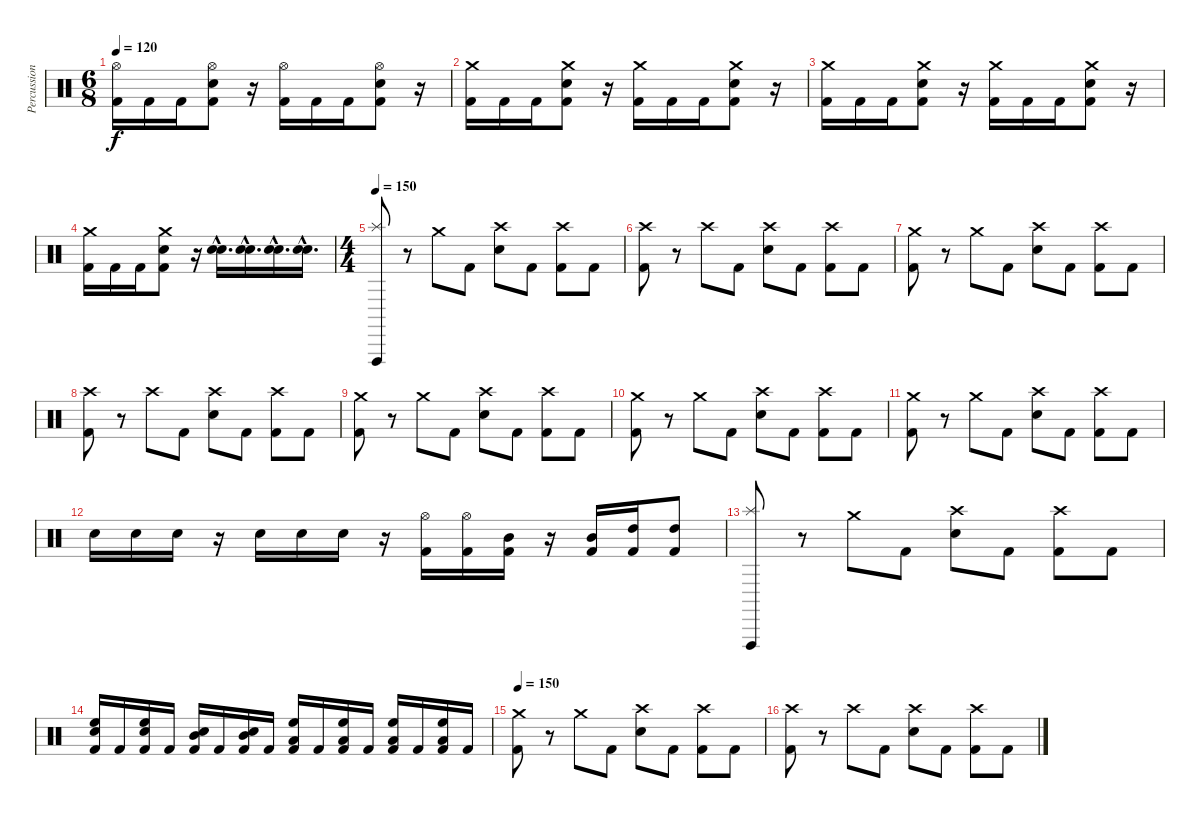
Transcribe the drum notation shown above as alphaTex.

\track ("Percussion" "Percussion") {instrument percussion}
\staff {score}
\articulation defaults
\ts (6 8)
\tempo 120
\clef neutral
\ks c
("Hi-Hat (open)" "Kick (hit) 2").16{dy f} "Kick (hit) 2".16 "Kick (hit) 2".16 ("Hi-Hat (open)" "Snare (hit) 2" "Kick (hit) 2").8 r.16 ("Hi-Hat (open)" "Kick (hit) 2").16 "Kick (hit) 2".16 "Kick (hit) 2".16 ("Hi-Hat (open)" "Snare (hit) 2" "Kick (hit) 2").8 r.16 |
("Crash medium (hit)" "Kick (hit) 2").16 "Kick (hit) 2".16 "Kick (hit) 2".16 ("Crash medium (hit)" "Snare (hit) 2" "Kick (hit) 2").8 r.16 ("Crash medium (hit)" "Kick (hit) 2").16 "Kick (hit) 2".16 "Kick (hit) 2".16 ("Crash medium (hit)" "Snare (hit) 2" "Kick (hit) 2").8 r.16 |
("Crash medium (hit)" "Kick (hit) 2").16 "Kick (hit) 2".16 "Kick (hit) 2".16 ("Crash medium (hit)" "Snare (hit) 2" "Kick (hit) 2").8 r.16 ("Crash medium (hit)" "Kick (hit) 2").16 "Kick (hit) 2".16 "Kick (hit) 2".16 ("Crash medium (hit)" "Snare (hit) 2" "Kick (hit) 2").8 r.16 |
("Crash medium (hit)" "Kick (hit) 2").16 "Kick (hit) 2".16 "Kick (hit) 2".16 ("Crash medium (hit)" "Snare (hit) 2" "Kick (hit) 2").8 r.16 ("Snare (hit) 2"{hac} "Snare (hit) 2"{hac}).16{d} ("Snare (hit) 2"{hac} "Snare (hit) 2"{hac}).16{d} ("Snare (hit) 2"{hac} "Snare (hit) 2"{hac}).16{d} ("Snare (hit) 2"{hac} "Snare (hit) 2"{hac}).16{d} |
\ts (4 4)
\tempo 150
("Splash (hit)" "Vibraslap (hit)").8 r.8 "Crash medium (hit)".8 "Kick (hit) 2".8 ("Crash high (hit)" "Snare (hit) 2").8 "Kick (hit) 2".8 ("Crash high (hit)" "Kick (hit) 2").8 "Kick (hit) 2".8 |
("Crash high (hit)" "Kick (hit) 2").8 r.8 "Crash high (hit)".8 "Kick (hit) 2".8 ("Crash high (hit)" "Snare (hit) 2").8 "Kick (hit) 2".8 ("Crash high (hit)" "Kick (hit) 2").8 "Kick (hit) 2".8 |
("Crash medium (hit)" "Kick (hit) 2").8 r.8 "Crash medium (hit)".8 "Kick (hit) 2".8 ("Crash high (hit)" "Snare (hit) 2").8 "Kick (hit) 2".8 ("Crash high (hit)" "Kick (hit) 2").8 "Kick (hit) 2".8 |
("Crash high (hit)" "Kick (hit) 2").8 r.8 "Crash high (hit)".8 "Kick (hit) 2".8 ("Crash high (hit)" "Snare (hit) 2").8 "Kick (hit) 2".8 ("Crash high (hit)" "Kick (hit) 2").8 "Kick (hit) 2".8 |
("Crash medium (hit)" "Kick (hit) 2").8 r.8 "Crash medium (hit)".8 "Kick (hit) 2".8 ("Crash high (hit)" "Snare (hit) 2").8 "Kick (hit) 2".8 ("Crash high (hit)" "Kick (hit) 2").8 "Kick (hit) 2".8 |
("Crash medium (hit)" "Kick (hit) 2").8 r.8 "Crash medium (hit)".8 "Kick (hit) 2".8 ("Crash high (hit)" "Snare (hit) 2").8 "Kick (hit) 2".8 ("Crash high (hit)" "Kick (hit) 2").8 "Kick (hit) 2".8 |
("Crash medium (hit)" "Kick (hit) 2").8 r.8 "Crash medium (hit)".8 "Kick (hit) 2".8 ("Crash high (hit)" "Snare (hit) 2").8 "Kick (hit) 2".8 ("Crash high (hit)" "Kick (hit) 2").8 "Kick (hit) 2".8 |
"Snare (hit) 2".16 "Snare (hit) 2".16 "Snare (hit) 2".16 r.16 "Snare (hit) 2".16 "Snare (hit) 2".16 "Snare (hit) 2".16 r.16 ("Hi-Hat (open)" "Kick (hit) 2").16 ("Hi-Hat (open)" "Kick (hit) 2").16 ("Mid Tom (hit)" "Kick (hit) 2").16 r.16 ("Mid Tom (hit)" "Kick (hit) 2").16 ("High Tom (hit)" "Kick (hit) 2").16 ("High Tom (hit)" "Kick (hit) 2").8 |
("Splash (hit)" "Vibraslap (hit)").8 r.8 "Crash medium (hit)".8 "Kick (hit) 2".8 ("Crash high (hit)" "Snare (hit) 2").8 "Kick (hit) 2".8 ("Crash high (hit)" "Kick (hit) 2").8 "Kick (hit) 2".8 |
("High Floor Tom (hit)" "Electric Snare (hit)" "Kick (hit) 2").16 "Kick (hit) 2".16 ("High Floor Tom (hit)" "Electric Snare (hit)" "Kick (hit) 2").16 "Kick (hit) 2".16 ("Mid Tom (hit)" "Electric Snare (hit)" "Kick (hit) 2").16 "Kick (hit) 2".16 ("Mid Tom (hit)" "Electric Snare (hit)" "Kick (hit) 2").16 "Kick (hit) 2".16 ("Low Tom (hit)" "High Floor Tom (hit)" "Kick (hit) 2").16 "Kick (hit) 2".16 ("Low Floor Tom (hit)" "High Floor Tom (hit)" "Kick (hit) 2").16 "Kick (hit) 2".16 ("Low Floor Tom (hit)" "High Floor Tom (hit)" "Kick (hit) 2").16 "Kick (hit) 2".16 ("Low Floor Tom (hit)" "High Floor Tom (hit)" "Kick (hit) 2").16 "Kick (hit) 2".16 |
\tempo 150
("Crash medium (hit)" "Kick (hit) 2").8 r.8 "Crash medium (hit)".8 "Kick (hit) 2".8 ("Crash high (hit)" "Snare (hit) 2").8 "Kick (hit) 2".8 ("Crash high (hit)" "Kick (hit) 2").8 "Kick (hit) 2".8 |
("Crash high (hit)" "Kick (hit) 2").8 r.8 "Crash high (hit)".8 "Kick (hit) 2".8 ("Crash high (hit)" "Snare (hit) 2").8 "Kick (hit) 2".8 ("Crash high (hit)" "Kick (hit) 2").8 "Kick (hit) 2".8
